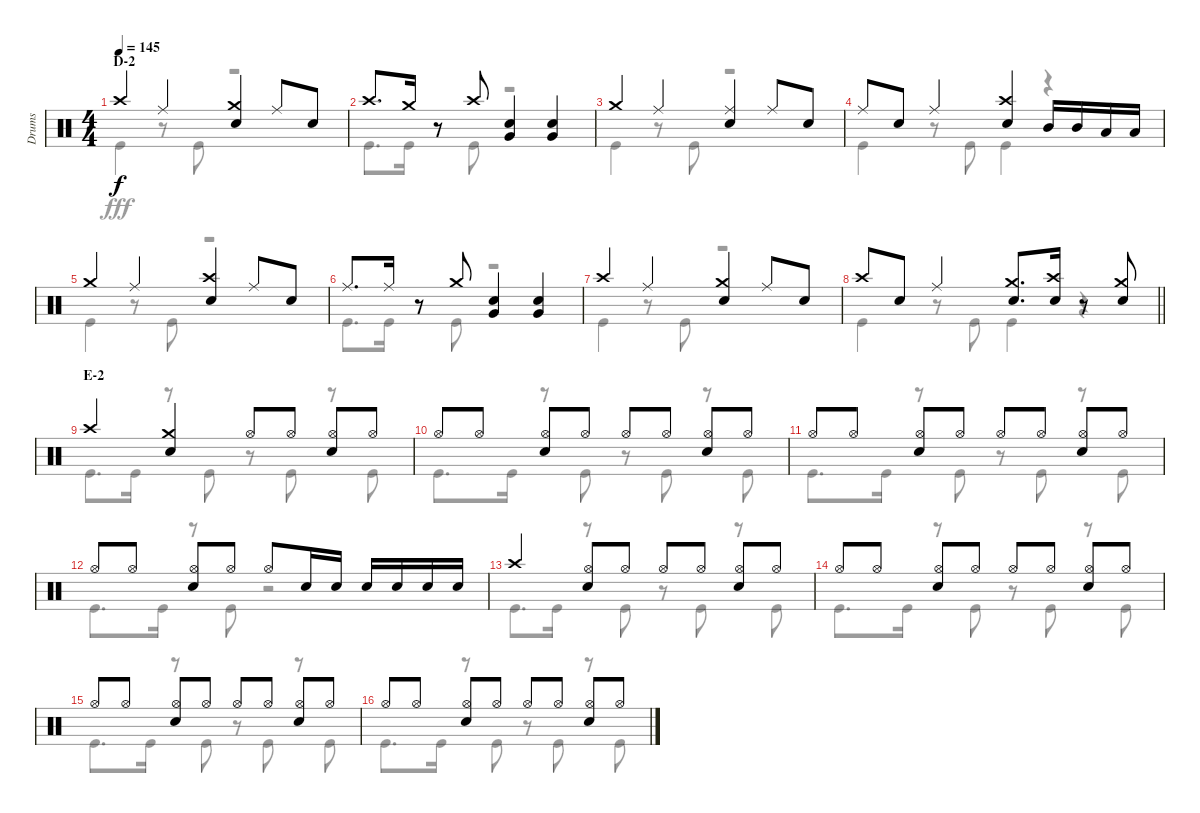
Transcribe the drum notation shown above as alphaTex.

\track ("Drums" "Drums") {instrument percussion}
\staff {score}
\articulation defaults
\voice
\ts (4 4)
\section ("" "D-2")
\tempo 145
\clef neutral
\ks c "Crash high (hit)".4{dy f} "Ride (middle)".4
("Crash medium (hit)" "Snare (hit) 2").4 "Ride (middle)".8 "Snare (hit) 2".8 |
"Crash high (hit)".8{d} "Crash medium (hit)".16 r.8 "Crash high (hit)".8 ("Snare (hit) 2" "Very Low Tom (hit)").4 ("Snare (hit) 2" "Very Low Tom (hit)").4 |
"Crash medium (hit)".4 "Ride (middle)".4 ("Ride (middle)" "Snare (hit) 2").4 "Ride (middle)".8 "Snare (hit) 2".8 |
"Ride (middle)".8 "Snare (hit) 2".8 "Ride (middle)".4 ("Crash high (hit)" "Snare (hit) 2").4 "Mid Tom (hit)".16 "Mid Tom (hit)".16 "Low Tom (hit)".16 "Low Tom (hit)".16 |
"Crash medium (hit)".4 "Ride (middle)".4 ("Crash high (hit)" "Snare (hit) 2").4 "Ride (middle)".8 "Snare (hit) 2".8 |
"Ride (middle)".8{d} "Ride (middle)".16 r.8 "Crash medium (hit)".8 ("Snare (hit) 2" "Very Low Tom (hit)").4 ("Snare (hit) 2" "Very Low Tom (hit)").4 |
"Crash high (hit)".4 "Ride (middle)".4 ("Crash medium (hit)" "Snare (hit) 2").4 "Ride (middle)".8 "Snare (hit) 2".8 |
\barLineRight lightlight "Crash high (hit)".8 "Snare (hit) 2".8 "Ride (middle)".4
("Crash medium (hit)" "Snare (hit) 2").8{d} ("Crash high (hit)" "Snare (hit) 2").16 r.8 ("Crash medium (hit)" "Snare (hit) 2").8 |
\section ("" "E-2")
"Crash high (hit)".4 ("Crash medium (hit)" "Snare (hit) 2").4 "Hi-Hat (open)".8 "Hi-Hat (open)".8 ("Hi-Hat (open)" "Snare (hit) 2").8 "Hi-Hat (open)".8 |
"Hi-Hat (open)".8 "Hi-Hat (open)".8 ("Hi-Hat (open)" "Snare (hit) 2").8 "Hi-Hat (open)".8 "Hi-Hat (open)".8 "Hi-Hat (open)".8 ("Hi-Hat (open)" "Snare (hit) 2").8 "Hi-Hat (open)".8 |
"Hi-Hat (open)".8 "Hi-Hat (open)".8 ("Hi-Hat (open)" "Snare (hit) 2").8 "Hi-Hat (open)".8 "Hi-Hat (open)".8 "Hi-Hat (open)".8 ("Hi-Hat (open)" "Snare (hit) 2").8 "Hi-Hat (open)".8 |
"Hi-Hat (open)".8 "Hi-Hat (open)".8 ("Hi-Hat (open)" "Snare (hit) 2").8 "Hi-Hat (open)".8 "Hi-Hat (open)".8 "Snare (hit) 2".16 "Snare (hit) 2".16 "Snare (hit) 2".16 "Snare (hit) 2".16 "Snare (hit) 2".16 "Snare (hit) 2".16 |
"Crash high (hit)".4 ("Hi-Hat (open)" "Snare (hit) 2").8 "Hi-Hat (open)".8 "Hi-Hat (open)".8 "Hi-Hat (open)".8 ("Hi-Hat (open)" "Snare (hit) 2").8 "Hi-Hat (open)".8 |
"Hi-Hat (open)".8 "Hi-Hat (open)".8 ("Hi-Hat (open)" "Snare (hit) 2").8 "Hi-Hat (open)".8 "Hi-Hat (open)".8 "Hi-Hat (open)".8 ("Hi-Hat (open)" "Snare (hit) 2").8 "Hi-Hat (open)".8 |
"Hi-Hat (open)".8 "Hi-Hat (open)".8 ("Hi-Hat (open)" "Snare (hit) 2").8 "Hi-Hat (open)".8 "Hi-Hat (open)".8 "Hi-Hat (open)".8 ("Hi-Hat (open)" "Snare (hit) 2").8 "Hi-Hat (open)".8 |
"Hi-Hat (open)".8 "Hi-Hat (open)".8 ("Hi-Hat (open)" "Snare (hit) 2").8 "Hi-Hat (open)".8 "Hi-Hat (open)".8 "Hi-Hat (open)".8 ("Hi-Hat (open)" "Snare (hit) 2").8 "Hi-Hat (open)".8
\voice
\clef neutral
\ottava regular
\simile none
\ks c "Kick (hit)".4{dy fff}
r.8 "Kick (hit)".8 r.2 |
"Kick (hit)".8{d} "Kick (hit)".16 r.8 "Kick (hit)".8 r.2 |
"Kick (hit)".4 r.8 "Kick (hit)".8 r.2 |
"Kick (hit)".4 r.8 "Kick (hit)".8 "Kick (hit)".4 r.4 |
"Kick (hit)".4 r.8 "Kick (hit)".8 r.2 |
"Kick (hit)".8{d} "Kick (hit)".16 r.8 "Kick (hit)".8 r.2 |
"Kick (hit)".4 r.8 "Kick (hit)".8 r.2 |
\barLineRight lightlight "Kick (hit)".4
r.8 "Kick (hit)".8 "Kick (hit)".4 r.4 |
"Kick (hit)".8{d} "Kick (hit)".16 r.8 "Kick (hit)".8 r.8 "Kick (hit)".8 r.8 "Kick (hit)".8 |
"Kick (hit)".8{d} "Kick (hit)".16 r.8 "Kick (hit)".8 r.8 "Kick (hit)".8 r.8 "Kick (hit)".8 |
"Kick (hit)".8{d} "Kick (hit)".16 r.8 "Kick (hit)".8 r.8 "Kick (hit)".8 r.8 "Kick (hit)".8 |
"Kick (hit)".8{d} "Kick (hit)".16 r.8 "Kick (hit)".8 r.2 |
"Kick (hit)".8{d} "Kick (hit)".16 r.8 "Kick (hit)".8 r.8 "Kick (hit)".8 r.8 "Kick (hit)".8 |
"Kick (hit)".8{d} "Kick (hit)".16 r.8 "Kick (hit)".8 r.8 "Kick (hit)".8 r.8 "Kick (hit)".8 |
"Kick (hit)".8{d} "Kick (hit)".16 r.8 "Kick (hit)".8 r.8 "Kick (hit)".8 r.8 "Kick (hit)".8 |
"Kick (hit)".8{d} "Kick (hit)".16 r.8 "Kick (hit)".8 r.8 "Kick (hit)".8 r.8 "Kick (hit)".8
